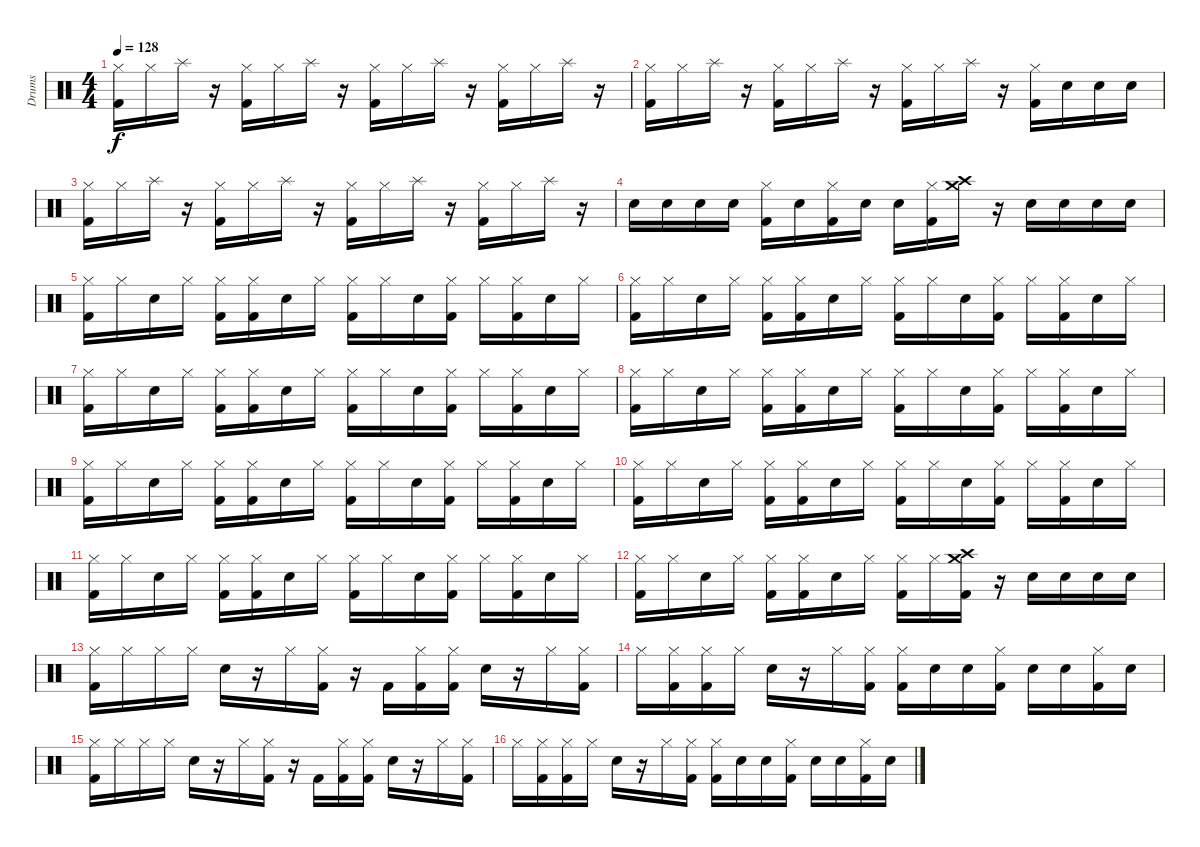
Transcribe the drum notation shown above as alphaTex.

\track ("Drums" "Drums") {instrument percussion}
\staff {score}
\articulation defaults
\ts (4 4)
\tempo 128
\clef neutral
\ks c
("Hi-Hat (closed)" "Kick (hit) 2").16{dy f} "Hi-Hat (closed)".16 "Splash (hit)".16 r.16 ("Hi-Hat (closed)" "Kick (hit) 2").16 "Hi-Hat (closed)".16 "Splash (hit)".16 r.16 ("Hi-Hat (closed)" "Kick (hit) 2").16 "Hi-Hat (closed)".16 "Splash (hit)".16 r.16 ("Hi-Hat (closed)" "Kick (hit) 2").16 "Hi-Hat (closed)".16 "Splash (hit)".16 r.16 |
("Hi-Hat (closed)" "Kick (hit) 2").16 "Hi-Hat (closed)".16 "Splash (hit)".16 r.16 ("Hi-Hat (closed)" "Kick (hit) 2").16 "Hi-Hat (closed)".16 "Splash (hit)".16 r.16 ("Hi-Hat (closed)" "Kick (hit) 2").16 "Hi-Hat (closed)".16 "Splash (hit)".16 r.16 ("Hi-Hat (closed)" "Kick (hit) 2").16 "Snare (hit) 2".16 "Snare (hit) 2".16 "Snare (hit) 2".16 |
("Hi-Hat (closed)" "Kick (hit) 2").16 "Hi-Hat (closed)".16 "Splash (hit)".16 r.16 ("Hi-Hat (closed)" "Kick (hit) 2").16 "Hi-Hat (closed)".16 "Splash (hit)".16 r.16 ("Hi-Hat (closed)" "Kick (hit) 2").16 "Hi-Hat (closed)".16 "Splash (hit)".16 r.16 ("Hi-Hat (closed)" "Kick (hit) 2").16 "Hi-Hat (closed)".16 "Splash (hit)".16 r.16 |
"Snare (hit) 2".16 "Snare (hit) 2".16 "Snare (hit) 2".16 "Snare (hit) 2".16 ("Hi-Hat (closed)" "Kick (hit) 2").16 "Snare (hit) 2".16 ("Hi-Hat (closed)" "Kick (hit) 2").16 "Snare (hit) 2".16 "Snare (hit) 2".16 ("Hi-Hat (closed)" "Kick (hit) 2").16 ("Crash medium (hit)" "Crash high (hit)").16 r.16 "Snare (hit) 2".16 "Snare (hit) 2".16 "Snare (hit) 2".16 "Snare (hit) 2".16 |
("Hi-Hat (closed)" "Kick (hit) 2").16 "Hi-Hat (closed)".16 "Snare (hit) 2".16 "Hi-Hat (closed)".16 ("Hi-Hat (closed)" "Kick (hit) 2").16 ("Hi-Hat (closed)" "Kick (hit) 2").16 "Snare (hit) 2".16 "Hi-Hat (closed)".16 ("Hi-Hat (closed)" "Kick (hit) 2").16 "Hi-Hat (closed)".16 "Snare (hit) 2".16 ("Hi-Hat (closed)" "Kick (hit) 2").16 "Hi-Hat (closed)".16 ("Hi-Hat (closed)" "Kick (hit) 2").16 "Snare (hit) 2".16 "Hi-Hat (closed)".16 |
("Hi-Hat (closed)" "Kick (hit) 2").16 "Hi-Hat (closed)".16 "Snare (hit) 2".16 "Hi-Hat (closed)".16 ("Hi-Hat (closed)" "Kick (hit) 2").16 ("Hi-Hat (closed)" "Kick (hit) 2").16 "Snare (hit) 2".16 "Hi-Hat (closed)".16 ("Hi-Hat (closed)" "Kick (hit) 2").16 "Hi-Hat (closed)".16 "Snare (hit) 2".16 ("Hi-Hat (closed)" "Kick (hit) 2").16 "Hi-Hat (closed)".16 ("Hi-Hat (closed)" "Kick (hit) 2").16 "Snare (hit) 2".16 "Hi-Hat (closed)".16 |
("Hi-Hat (closed)" "Kick (hit) 2").16 "Hi-Hat (closed)".16 "Snare (hit) 2".16 "Hi-Hat (closed)".16 ("Hi-Hat (closed)" "Kick (hit) 2").16 ("Hi-Hat (closed)" "Kick (hit) 2").16 "Snare (hit) 2".16 "Hi-Hat (closed)".16 ("Hi-Hat (closed)" "Kick (hit) 2").16 "Hi-Hat (closed)".16 "Snare (hit) 2".16 ("Hi-Hat (closed)" "Kick (hit) 2").16 "Hi-Hat (closed)".16 ("Hi-Hat (closed)" "Kick (hit) 2").16 "Snare (hit) 2".16 "Hi-Hat (closed)".16 |
("Hi-Hat (closed)" "Kick (hit) 2").16 "Hi-Hat (closed)".16 "Snare (hit) 2".16 "Hi-Hat (closed)".16 ("Hi-Hat (closed)" "Kick (hit) 2").16 ("Hi-Hat (closed)" "Kick (hit) 2").16 "Snare (hit) 2".16 "Hi-Hat (closed)".16 ("Hi-Hat (closed)" "Kick (hit) 2").16 "Hi-Hat (closed)".16 "Snare (hit) 2".16 ("Hi-Hat (closed)" "Kick (hit) 2").16 "Hi-Hat (closed)".16 ("Hi-Hat (closed)" "Kick (hit) 2").16 "Snare (hit) 2".16 "Hi-Hat (closed)".16 |
("Hi-Hat (closed)" "Kick (hit) 2").16 "Hi-Hat (closed)".16 "Snare (hit) 2".16 "Hi-Hat (closed)".16 ("Hi-Hat (closed)" "Kick (hit) 2").16 ("Hi-Hat (closed)" "Kick (hit) 2").16 "Snare (hit) 2".16 "Hi-Hat (closed)".16 ("Hi-Hat (closed)" "Kick (hit) 2").16 "Hi-Hat (closed)".16 "Snare (hit) 2".16 ("Hi-Hat (closed)" "Kick (hit) 2").16 "Hi-Hat (closed)".16 ("Hi-Hat (closed)" "Kick (hit) 2").16 "Snare (hit) 2".16 "Hi-Hat (closed)".16 |
("Hi-Hat (closed)" "Kick (hit) 2").16 "Hi-Hat (closed)".16 "Snare (hit) 2".16 "Hi-Hat (closed)".16 ("Hi-Hat (closed)" "Kick (hit) 2").16 ("Hi-Hat (closed)" "Kick (hit) 2").16 "Snare (hit) 2".16 "Hi-Hat (closed)".16 ("Hi-Hat (closed)" "Kick (hit) 2").16 "Hi-Hat (closed)".16 "Snare (hit) 2".16 ("Hi-Hat (closed)" "Kick (hit) 2").16 "Hi-Hat (closed)".16 ("Hi-Hat (closed)" "Kick (hit) 2").16 "Snare (hit) 2".16 "Hi-Hat (closed)".16 |
("Hi-Hat (closed)" "Kick (hit) 2").16 "Hi-Hat (closed)".16 "Snare (hit) 2".16 "Hi-Hat (closed)".16 ("Hi-Hat (closed)" "Kick (hit) 2").16 ("Hi-Hat (closed)" "Kick (hit) 2").16 "Snare (hit) 2".16 "Hi-Hat (closed)".16 ("Hi-Hat (closed)" "Kick (hit) 2").16 "Hi-Hat (closed)".16 "Snare (hit) 2".16 ("Hi-Hat (closed)" "Kick (hit) 2").16 "Hi-Hat (closed)".16 ("Hi-Hat (closed)" "Kick (hit) 2").16 "Snare (hit) 2".16 "Hi-Hat (closed)".16 |
("Hi-Hat (closed)" "Kick (hit) 2").16 "Hi-Hat (closed)".16 "Snare (hit) 2".16 "Hi-Hat (closed)".16 ("Hi-Hat (closed)" "Kick (hit) 2").16 ("Hi-Hat (closed)" "Kick (hit) 2").16 "Snare (hit) 2".16 "Hi-Hat (closed)".16 ("Hi-Hat (closed)" "Kick (hit) 2").16 "Hi-Hat (closed)".16 ("Crash medium (hit)" "Crash high (hit)" "Kick (hit) 2").16 r.16 "Snare (hit) 2".16 "Snare (hit) 2".16 "Snare (hit) 2".16 "Snare (hit) 2".16 |
("Hi-Hat (closed)" "Kick (hit) 2").16 "Hi-Hat (closed)".16 "Hi-Hat (closed)".16 "Hi-Hat (closed)".16 "Snare (hit) 2".16 r.16 "Hi-Hat (closed)".16 ("Hi-Hat (closed)" "Kick (hit) 2").16 r.16 "Kick (hit) 2".16 ("Hi-Hat (closed)" "Kick (hit) 2").16 ("Hi-Hat (closed)" "Kick (hit) 2").16 "Snare (hit) 2".16 r.16 "Hi-Hat (closed)".16 ("Hi-Hat (closed)" "Kick (hit) 2").16 |
"Hi-Hat (closed)".16 ("Hi-Hat (closed)" "Kick (hit) 2").16 ("Hi-Hat (closed)" "Kick (hit) 2").16 "Hi-Hat (closed)".16 "Snare (hit) 2".16 r.16 "Hi-Hat (closed)".16 ("Hi-Hat (closed)" "Kick (hit) 2").16 ("Hi-Hat (closed)" "Kick (hit) 2").16 "Snare (hit) 2".16 "Snare (hit) 2".16 ("Hi-Hat (closed)" "Kick (hit) 2").16 "Snare (hit) 2".16 "Snare (hit) 2".16 ("Hi-Hat (closed)" "Kick (hit) 2").16 "Snare (hit) 2".16 |
("Hi-Hat (closed)" "Kick (hit) 2").16 "Hi-Hat (closed)".16 "Hi-Hat (closed)".16 "Hi-Hat (closed)".16 "Snare (hit) 2".16 r.16 "Hi-Hat (closed)".16 ("Hi-Hat (closed)" "Kick (hit) 2").16 r.16 "Kick (hit) 2".16 ("Hi-Hat (closed)" "Kick (hit) 2").16 ("Hi-Hat (closed)" "Kick (hit) 2").16 "Snare (hit) 2".16 r.16 "Hi-Hat (closed)".16 ("Hi-Hat (closed)" "Kick (hit) 2").16 |
"Hi-Hat (closed)".16 ("Hi-Hat (closed)" "Kick (hit) 2").16 ("Hi-Hat (closed)" "Kick (hit) 2").16 "Hi-Hat (closed)".16 "Snare (hit) 2".16 r.16 "Hi-Hat (closed)".16 ("Hi-Hat (closed)" "Kick (hit) 2").16 ("Hi-Hat (closed)" "Kick (hit) 2").16 "Snare (hit) 2".16 "Snare (hit) 2".16 ("Hi-Hat (closed)" "Kick (hit) 2").16 "Snare (hit) 2".16 "Snare (hit) 2".16 ("Hi-Hat (closed)" "Kick (hit) 2").16 "Snare (hit) 2".16
